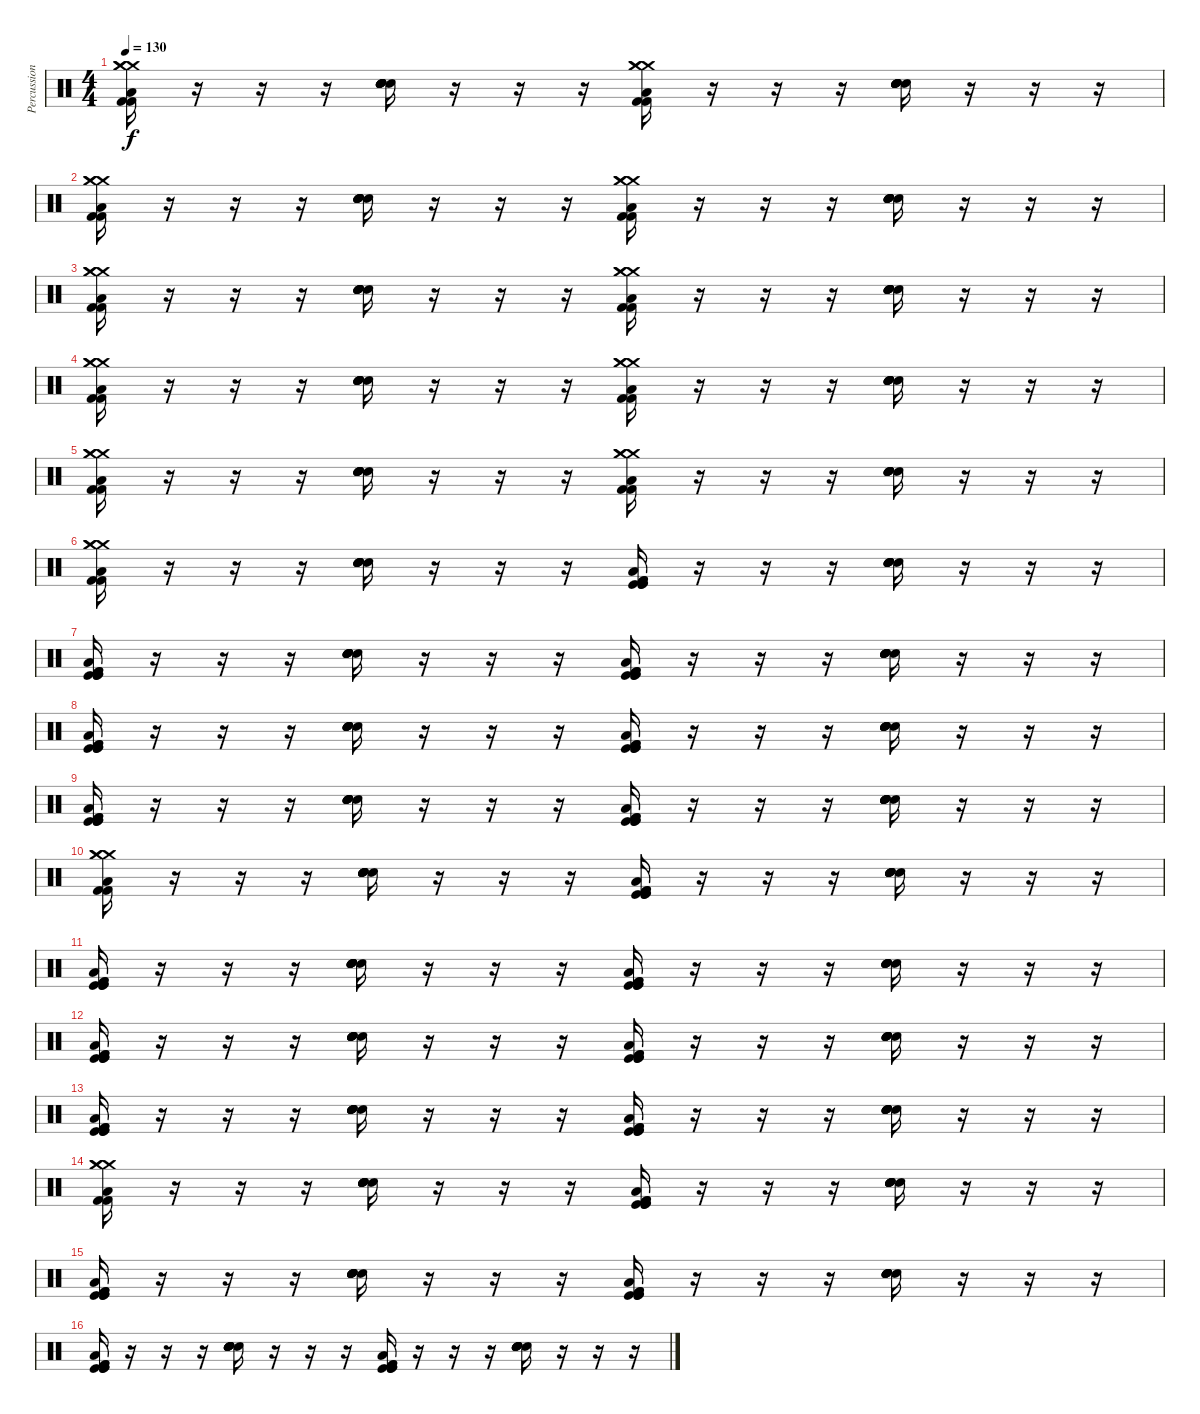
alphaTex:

\track ("Percussion" "Percussion") {instrument percussion}
\staff {score}
\articulation defaults
\ts (4 4)
\tempo 130
\clef neutral
\ks c
("Crash medium (hit)" "Crash medium (hit)" "Crash medium (hit)" "Kick (hit) 2" "Kick (hit) 2" "Low Floor Tom (hit)").16{dy f} r.16 r.16 r.16 ("Snare (hit) 2" "Snare (hit) 2" "Snare (hit) 2" "Electric Snare (hit)" "Electric Snare (hit)" "Electric Snare (hit)").16 r.16 r.16 r.16 ("Crash medium (hit)" "Crash medium (hit)" "Crash medium (hit)" "Kick (hit) 2" "Kick (hit) 2" "Low Floor Tom (hit)").16 r.16 r.16 r.16 ("Snare (hit) 2" "Snare (hit) 2" "Snare (hit) 2" "Electric Snare (hit)" "Electric Snare (hit)" "Electric Snare (hit)").16 r.16 r.16 r.16 |
("Crash medium (hit)" "Crash medium (hit)" "Crash medium (hit)" "Kick (hit) 2" "Kick (hit) 2" "Low Floor Tom (hit)").16 r.16 r.16 r.16 ("Snare (hit) 2" "Snare (hit) 2" "Snare (hit) 2" "Electric Snare (hit)" "Electric Snare (hit)" "Electric Snare (hit)").16 r.16 r.16 r.16 ("Crash medium (hit)" "Crash medium (hit)" "Crash medium (hit)" "Kick (hit) 2" "Kick (hit) 2" "Low Floor Tom (hit)").16 r.16 r.16 r.16 ("Snare (hit) 2" "Snare (hit) 2" "Snare (hit) 2" "Electric Snare (hit)" "Electric Snare (hit)" "Electric Snare (hit)").16 r.16 r.16 r.16 |
("Crash medium (hit)" "Crash medium (hit)" "Crash medium (hit)" "Kick (hit) 2" "Kick (hit) 2" "Low Floor Tom (hit)").16 r.16 r.16 r.16 ("Snare (hit) 2" "Snare (hit) 2" "Snare (hit) 2" "Electric Snare (hit)" "Electric Snare (hit)" "Electric Snare (hit)").16 r.16 r.16 r.16 ("Crash medium (hit)" "Crash medium (hit)" "Crash medium (hit)" "Kick (hit) 2" "Kick (hit) 2" "Low Floor Tom (hit)").16 r.16 r.16 r.16 ("Snare (hit) 2" "Snare (hit) 2" "Snare (hit) 2" "Electric Snare (hit)" "Electric Snare (hit)" "Electric Snare (hit)").16 r.16 r.16 r.16 |
("Crash medium (hit)" "Crash medium (hit)" "Crash medium (hit)" "Kick (hit) 2" "Kick (hit) 2" "Low Floor Tom (hit)").16 r.16 r.16 r.16 ("Snare (hit) 2" "Snare (hit) 2" "Snare (hit) 2" "Electric Snare (hit)" "Electric Snare (hit)" "Electric Snare (hit)").16 r.16 r.16 r.16 ("Crash medium (hit)" "Crash medium (hit)" "Crash medium (hit)" "Kick (hit) 2" "Kick (hit) 2" "Low Floor Tom (hit)").16 r.16 r.16 r.16 ("Snare (hit) 2" "Snare (hit) 2" "Snare (hit) 2" "Electric Snare (hit)" "Electric Snare (hit)" "Electric Snare (hit)").16 r.16 r.16 r.16 |
("Crash medium (hit)" "Crash medium (hit)" "Crash medium (hit)" "Kick (hit) 2" "Kick (hit) 2" "Low Floor Tom (hit)").16 r.16 r.16 r.16 ("Snare (hit) 2" "Snare (hit) 2" "Snare (hit) 2" "Electric Snare (hit)" "Electric Snare (hit)" "Electric Snare (hit)").16 r.16 r.16 r.16 ("Crash medium (hit)" "Crash medium (hit)" "Crash medium (hit)" "Kick (hit) 2" "Kick (hit) 2" "Low Floor Tom (hit)").16 r.16 r.16 r.16 ("Snare (hit) 2" "Snare (hit) 2" "Snare (hit) 2" "Electric Snare (hit)" "Electric Snare (hit)" "Electric Snare (hit)").16 r.16 r.16 r.16 |
("Crash medium (hit)" "Crash medium (hit)" "Crash medium (hit)" "Kick (hit) 2" "Kick (hit) 2" "Low Floor Tom (hit)").16 r.16 r.16 r.16 ("Snare (hit) 2" "Snare (hit) 2" "Snare (hit) 2" "Electric Snare (hit)" "Electric Snare (hit)" "Electric Snare (hit)").16 r.16 r.16 r.16 ("Kick (hit)" "Kick (hit)" "Kick (hit)" "Kick (hit) 2" "Kick (hit) 2" "Low Floor Tom (hit)").16 r.16 r.16 r.16 ("Snare (hit) 2" "Snare (hit) 2" "Snare (hit) 2" "Electric Snare (hit)" "Electric Snare (hit)" "Electric Snare (hit)").16 r.16 r.16 r.16 |
("Kick (hit)" "Kick (hit)" "Kick (hit)" "Kick (hit) 2" "Kick (hit) 2" "Low Floor Tom (hit)").16 r.16 r.16 r.16 ("Snare (hit) 2" "Snare (hit) 2" "Snare (hit) 2" "Electric Snare (hit)" "Electric Snare (hit)" "Electric Snare (hit)").16 r.16 r.16 r.16 ("Kick (hit)" "Kick (hit)" "Kick (hit)" "Kick (hit) 2" "Kick (hit) 2" "Low Floor Tom (hit)").16 r.16 r.16 r.16 ("Snare (hit) 2" "Snare (hit) 2" "Snare (hit) 2" "Electric Snare (hit)" "Electric Snare (hit)" "Electric Snare (hit)").16 r.16 r.16 r.16 |
("Kick (hit)" "Kick (hit)" "Kick (hit)" "Kick (hit) 2" "Kick (hit) 2" "Low Floor Tom (hit)").16 r.16 r.16 r.16 ("Snare (hit) 2" "Snare (hit) 2" "Snare (hit) 2" "Electric Snare (hit)" "Electric Snare (hit)" "Electric Snare (hit)").16 r.16 r.16 r.16 ("Kick (hit)" "Kick (hit)" "Kick (hit)" "Kick (hit) 2" "Kick (hit) 2" "Low Floor Tom (hit)").16 r.16 r.16 r.16 ("Snare (hit) 2" "Snare (hit) 2" "Snare (hit) 2" "Electric Snare (hit)" "Electric Snare (hit)" "Electric Snare (hit)").16 r.16 r.16 r.16 |
("Kick (hit)" "Kick (hit)" "Kick (hit)" "Kick (hit) 2" "Kick (hit) 2" "Low Floor Tom (hit)").16 r.16 r.16 r.16 ("Snare (hit) 2" "Snare (hit) 2" "Snare (hit) 2" "Electric Snare (hit)" "Electric Snare (hit)" "Electric Snare (hit)").16 r.16 r.16 r.16 ("Kick (hit)" "Kick (hit)" "Kick (hit)" "Kick (hit) 2" "Kick (hit) 2" "Low Floor Tom (hit)").16 r.16 r.16 r.16 ("Snare (hit) 2" "Snare (hit) 2" "Snare (hit) 2" "Electric Snare (hit)" "Electric Snare (hit)" "Electric Snare (hit)").16 r.16 r.16 r.16 |
("Crash medium (hit)" "Crash medium (hit)" "Crash medium (hit)" "Kick (hit) 2" "Kick (hit) 2" "Low Floor Tom (hit)").16 r.16 r.16 r.16 ("Snare (hit) 2" "Snare (hit) 2" "Snare (hit) 2" "Electric Snare (hit)" "Electric Snare (hit)" "Electric Snare (hit)").16 r.16 r.16 r.16 ("Kick (hit)" "Kick (hit)" "Kick (hit)" "Kick (hit) 2" "Kick (hit) 2" "Low Floor Tom (hit)").16 r.16 r.16 r.16 ("Snare (hit) 2" "Snare (hit) 2" "Snare (hit) 2" "Electric Snare (hit)" "Electric Snare (hit)" "Electric Snare (hit)").16 r.16 r.16 r.16 |
("Kick (hit)" "Kick (hit)" "Kick (hit)" "Kick (hit) 2" "Kick (hit) 2" "Low Floor Tom (hit)").16 r.16 r.16 r.16 ("Snare (hit) 2" "Snare (hit) 2" "Snare (hit) 2" "Electric Snare (hit)" "Electric Snare (hit)" "Electric Snare (hit)").16 r.16 r.16 r.16 ("Kick (hit)" "Kick (hit)" "Kick (hit)" "Kick (hit) 2" "Kick (hit) 2" "Low Floor Tom (hit)").16 r.16 r.16 r.16 ("Snare (hit) 2" "Snare (hit) 2" "Snare (hit) 2" "Electric Snare (hit)" "Electric Snare (hit)" "Electric Snare (hit)").16 r.16 r.16 r.16 |
("Kick (hit)" "Kick (hit)" "Kick (hit)" "Kick (hit) 2" "Kick (hit) 2" "Low Floor Tom (hit)").16 r.16 r.16 r.16 ("Snare (hit) 2" "Snare (hit) 2" "Snare (hit) 2" "Electric Snare (hit)" "Electric Snare (hit)" "Electric Snare (hit)").16 r.16 r.16 r.16 ("Kick (hit)" "Kick (hit)" "Kick (hit)" "Kick (hit) 2" "Kick (hit) 2" "Low Floor Tom (hit)").16 r.16 r.16 r.16 ("Snare (hit) 2" "Snare (hit) 2" "Snare (hit) 2" "Electric Snare (hit)" "Electric Snare (hit)" "Electric Snare (hit)").16 r.16 r.16 r.16 |
("Kick (hit)" "Kick (hit)" "Kick (hit)" "Kick (hit) 2" "Kick (hit) 2" "Low Floor Tom (hit)").16 r.16 r.16 r.16 ("Snare (hit) 2" "Snare (hit) 2" "Snare (hit) 2" "Electric Snare (hit)" "Electric Snare (hit)" "Electric Snare (hit)").16 r.16 r.16 r.16 ("Kick (hit)" "Kick (hit)" "Kick (hit)" "Kick (hit) 2" "Kick (hit) 2" "Low Floor Tom (hit)").16 r.16 r.16 r.16 ("Snare (hit) 2" "Snare (hit) 2" "Snare (hit) 2" "Electric Snare (hit)" "Electric Snare (hit)" "Electric Snare (hit)").16 r.16 r.16 r.16 |
("Crash medium (hit)" "Crash medium (hit)" "Crash medium (hit)" "Kick (hit) 2" "Kick (hit) 2" "Low Floor Tom (hit)").16 r.16 r.16 r.16 ("Snare (hit) 2" "Snare (hit) 2" "Snare (hit) 2" "Electric Snare (hit)" "Electric Snare (hit)" "Electric Snare (hit)").16 r.16 r.16 r.16 ("Kick (hit)" "Kick (hit)" "Kick (hit)" "Kick (hit) 2" "Kick (hit) 2" "Low Floor Tom (hit)").16 r.16 r.16 r.16 ("Snare (hit) 2" "Snare (hit) 2" "Snare (hit) 2" "Electric Snare (hit)" "Electric Snare (hit)" "Electric Snare (hit)").16 r.16 r.16 r.16 |
("Kick (hit)" "Kick (hit)" "Kick (hit)" "Kick (hit) 2" "Kick (hit) 2" "Low Floor Tom (hit)").16 r.16 r.16 r.16 ("Snare (hit) 2" "Snare (hit) 2" "Snare (hit) 2" "Electric Snare (hit)" "Electric Snare (hit)" "Electric Snare (hit)").16 r.16 r.16 r.16 ("Kick (hit)" "Kick (hit)" "Kick (hit)" "Kick (hit) 2" "Kick (hit) 2" "Low Floor Tom (hit)").16 r.16 r.16 r.16 ("Snare (hit) 2" "Snare (hit) 2" "Snare (hit) 2" "Electric Snare (hit)" "Electric Snare (hit)" "Electric Snare (hit)").16 r.16 r.16 r.16 |
("Kick (hit)" "Kick (hit)" "Kick (hit)" "Kick (hit) 2" "Kick (hit) 2" "Low Floor Tom (hit)").16 r.16 r.16 r.16 ("Snare (hit) 2" "Snare (hit) 2" "Snare (hit) 2" "Electric Snare (hit)" "Electric Snare (hit)" "Electric Snare (hit)").16 r.16 r.16 r.16 ("Kick (hit)" "Kick (hit)" "Kick (hit)" "Kick (hit) 2" "Kick (hit) 2" "Low Floor Tom (hit)").16 r.16 r.16 r.16 ("Snare (hit) 2" "Snare (hit) 2" "Snare (hit) 2" "Electric Snare (hit)" "Electric Snare (hit)" "Electric Snare (hit)").16 r.16 r.16 r.16
